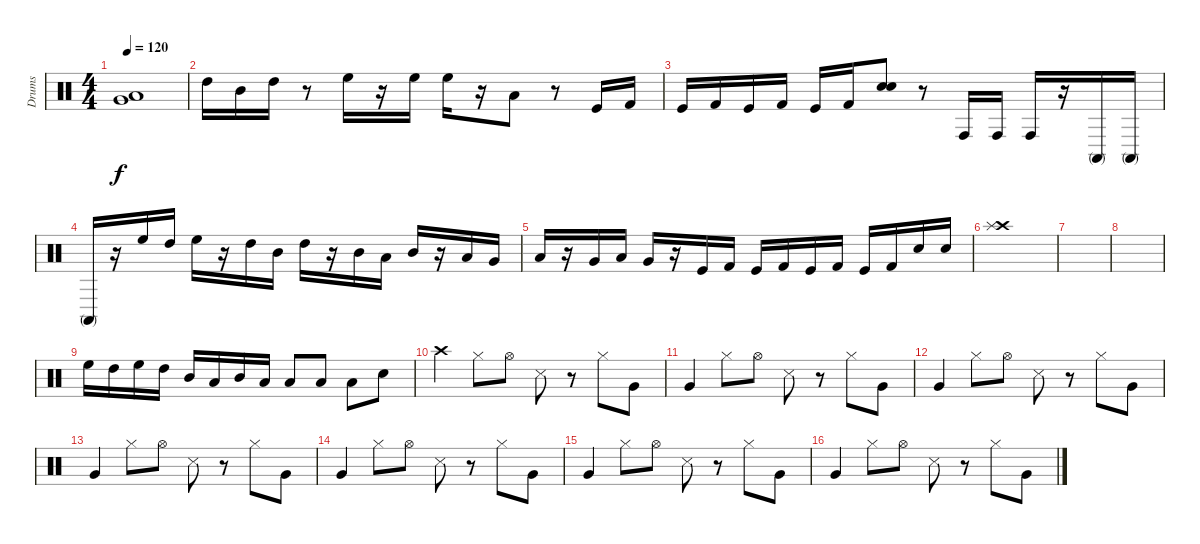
\track ("Drums" "Drums") {instrument percussion}
\staff {score}
\articulation defaults
\ts (4 4)
\tempo 120
\clef neutral
\ks c
("Very Low Tom (hit)" "Low Floor Tom (hit)").1{dy f} |
"High Tom (hit)".16 "Mid Tom (hit)".16 "High Tom (hit)".16 r.8 "High Floor Tom (hit)".16 r.16 "High Floor Tom (hit)".16 "High Floor Tom (hit)".16 r.16 "Low Tom (hit)".8 r.8 "Kick (hit)".16 "Kick (hit) 2".16 |
"Kick (hit)".16 "Kick (hit) 2".16 "Kick (hit)".16 "Kick (hit) 2".16 "Kick (hit)".16 "Kick (hit) 2".16 ("Electric Snare (hit)" "Electric Snare (hit)").8 r.8 "Conga high (hit)".16 "Conga high (hit)".16 "Conga high (hit)".16 r.16 "Conga high (mute)".16 "Conga high (mute)".16 |
"Conga high (mute)".16 r.16 "High Floor Tom (hit)".16 "High Tom (hit)".16 "High Floor Tom (hit)".16 r.16 "High Tom (hit)".16 "Mid Tom (hit)".16 "High Tom (hit)".16 r.16 "Mid Tom (hit)".16 "Low Tom (hit)".16 "Mid Tom (hit)".16 r.16 "Low Tom (hit)".16 "Very Low Tom (hit)".16 |
"Low Tom (hit)".16 r.16 "Very Low Tom (hit)".16 "Low Floor Tom (hit)".16 "Very Low Tom (hit)".16 r.16 "Kick (hit)".16 "Kick (hit) 2".16 "Kick (hit)".16 "Kick (hit) 2".16 "Kick (hit)".16 "Kick (hit) 2".16 "Kick (hit)".16 "Kick (hit) 2".16 "Electric Snare (hit)".16 "Electric Snare (hit)".16 |
("Crash high (hit)" "Splash (hit)").1 |
|
|
"High Floor Tom (hit)".16 "High Tom (hit)".16 "High Floor Tom (hit)".16 "High Tom (hit)".16 "Mid Tom (hit)".16 "Low Tom (hit)".16 "Mid Tom (hit)".16 "Low Tom (hit)".16 "Low Floor Tom (hit)".8 "Low Floor Tom (hit)".8 "Low Floor Tom (hit)".8 "Electric Snare (hit)".8 |
"Crash high (hit)".4 "Hi-Hat (closed)".8 "Hi-Hat (open)".8 "Snare (side stick) 3".8 r.8 "Hi-Hat (closed)".8 "Very Low Tom (hit)".8 |
"Very Low Tom (hit)".4 "Hi-Hat (closed)".8 "Hi-Hat (open)".8 "Snare (side stick) 3".8 r.8 "Hi-Hat (closed)".8 "Very Low Tom (hit)".8 |
"Very Low Tom (hit)".4 "Hi-Hat (closed)".8 "Hi-Hat (open)".8 "Snare (side stick) 3".8 r.8 "Hi-Hat (closed)".8 "Very Low Tom (hit)".8 |
"Very Low Tom (hit)".4 "Hi-Hat (closed)".8 "Hi-Hat (open)".8 "Snare (side stick) 3".8 r.8 "Hi-Hat (closed)".8 "Very Low Tom (hit)".8 |
"Very Low Tom (hit)".4 "Hi-Hat (closed)".8 "Hi-Hat (open)".8 "Snare (side stick) 3".8 r.8 "Hi-Hat (closed)".8 "Very Low Tom (hit)".8 |
"Very Low Tom (hit)".4 "Hi-Hat (closed)".8 "Hi-Hat (open)".8 "Snare (side stick) 3".8 r.8 "Hi-Hat (closed)".8 "Very Low Tom (hit)".8 |
"Very Low Tom (hit)".4 "Hi-Hat (closed)".8 "Hi-Hat (open)".8 "Snare (side stick) 3".8 r.8 "Hi-Hat (closed)".8 "Very Low Tom (hit)".8
